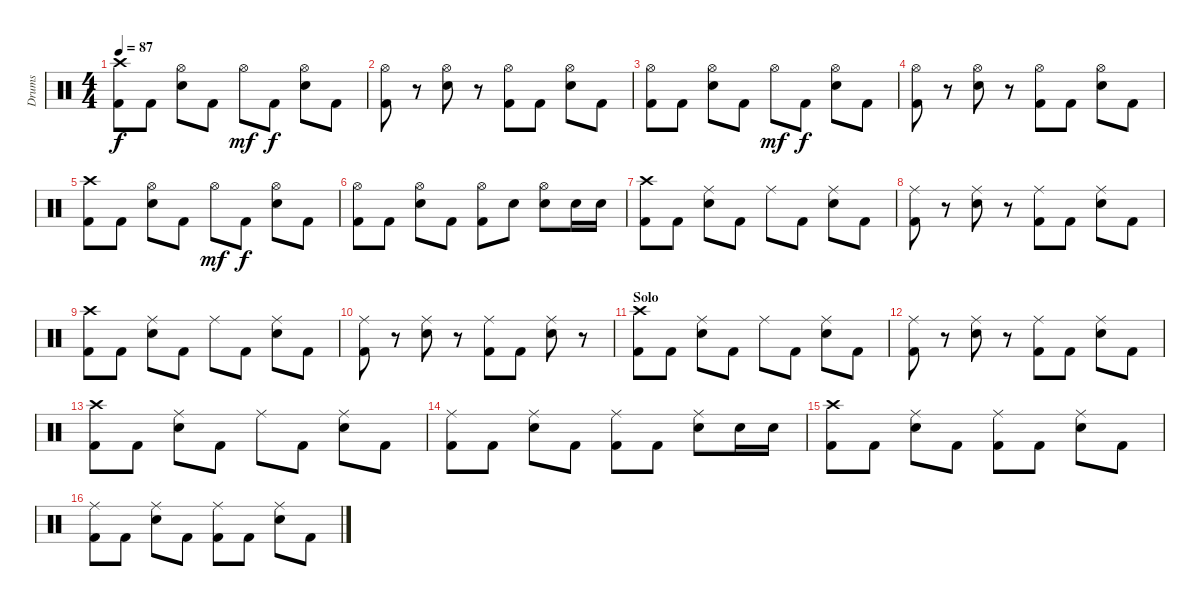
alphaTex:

\track ("Drums" "Drums") {instrument percussion}
\staff {score}
\articulation defaults
\ts (4 4)
\tempo 87
\clef neutral
\ks c
("Crash high (hit)" "Kick (hit) 2").8{dy f} "Kick (hit) 2".8 ("Hi-Hat (open)" "Snare (hit) 2").8 "Kick (hit) 2".8 "Hi-Hat (open)".8{dy mf} "Kick (hit) 2".8{dy f} ("Hi-Hat (open)" "Snare (hit) 2").8 "Kick (hit) 2".8 |
("Hi-Hat (open)" "Kick (hit) 2").8 r.8 ("Hi-Hat (open)" "Snare (hit) 2").8 r.8 ("Hi-Hat (open)" "Kick (hit) 2").8 "Kick (hit) 2".8 ("Hi-Hat (open)" "Snare (hit) 2").8 "Kick (hit) 2".8 |
("Hi-Hat (open)" "Kick (hit) 2").8 "Kick (hit) 2".8 ("Hi-Hat (open)" "Snare (hit) 2").8 "Kick (hit) 2".8 "Hi-Hat (open)".8{dy mf} "Kick (hit) 2".8{dy f} ("Hi-Hat (open)" "Snare (hit) 2").8 "Kick (hit) 2".8 |
("Hi-Hat (open)" "Kick (hit) 2").8 r.8 ("Hi-Hat (open)" "Snare (hit) 2").8 r.8 ("Hi-Hat (open)" "Kick (hit) 2").8 "Kick (hit) 2".8 ("Hi-Hat (open)" "Snare (hit) 2").8 "Kick (hit) 2".8 |
("Crash high (hit)" "Kick (hit) 2").8 "Kick (hit) 2".8 ("Hi-Hat (open)" "Snare (hit) 2").8 "Kick (hit) 2".8 "Hi-Hat (open)".8{dy mf} "Kick (hit) 2".8{dy f} ("Hi-Hat (open)" "Snare (hit) 2").8 "Kick (hit) 2".8 |
("Hi-Hat (open)" "Kick (hit) 2").8 "Kick (hit) 2".8 ("Hi-Hat (open)" "Snare (hit) 2").8 "Kick (hit) 2".8 ("Hi-Hat (open)" "Kick (hit) 2").8 "Snare (hit) 2".8 ("Hi-Hat (open)" "Snare (hit) 2").8 "Snare (hit) 2".16 "Snare (hit) 2".16 |
("Crash high (hit)" "Kick (hit) 2").8 "Kick (hit) 2".8 ("Ride (middle)" "Snare (hit) 2").8 "Kick (hit) 2".8 "Ride (middle)".8 "Kick (hit) 2".8 ("Ride (middle)" "Snare (hit) 2").8 "Kick (hit) 2".8 |
("Ride (middle)" "Kick (hit) 2").8 r.8 ("Ride (middle)" "Snare (hit) 2").8 r.8 ("Ride (middle)" "Kick (hit) 2").8 "Kick (hit) 2".8 ("Ride (middle)" "Snare (hit) 2").8 "Kick (hit) 2".8 |
("Crash high (hit)" "Kick (hit) 2").8 "Kick (hit) 2".8 ("Ride (middle)" "Snare (hit) 2").8 "Kick (hit) 2".8 "Ride (middle)".8 "Kick (hit) 2".8 ("Ride (middle)" "Snare (hit) 2").8 "Kick (hit) 2".8 |
("Ride (middle)" "Kick (hit) 2").8 r.8 ("Ride (middle)" "Snare (hit) 2").8 r.8 ("Ride (middle)" "Kick (hit) 2").8 "Kick (hit) 2".8 ("Ride (middle)" "Snare (hit) 2").8 r.8 |
\section ("" "Solo")
("Crash high (hit)" "Kick (hit) 2").8 "Kick (hit) 2".8 ("Ride (middle)" "Snare (hit) 2").8 "Kick (hit) 2".8 "Ride (middle)".8 "Kick (hit) 2".8 ("Ride (middle)" "Snare (hit) 2").8 "Kick (hit) 2".8 |
("Ride (middle)" "Kick (hit) 2").8 r.8 ("Ride (middle)" "Snare (hit) 2").8 r.8 ("Ride (middle)" "Kick (hit) 2").8 "Kick (hit) 2".8 ("Ride (middle)" "Snare (hit) 2").8 "Kick (hit) 2".8 |
("Crash high (hit)" "Kick (hit) 2").8 "Kick (hit) 2".8 ("Ride (middle)" "Snare (hit) 2").8 "Kick (hit) 2".8 "Ride (middle)".8 "Kick (hit) 2".8 ("Ride (middle)" "Snare (hit) 2").8 "Kick (hit) 2".8 |
("Ride (middle)" "Kick (hit) 2").8 "Kick (hit) 2".8 ("Ride (middle)" "Snare (hit) 2").8 "Kick (hit) 2".8 ("Ride (middle)" "Kick (hit) 2").8 "Kick (hit) 2".8 ("Ride (middle)" "Snare (hit) 2").8 "Snare (hit) 2".16 "Snare (hit) 2".16 |
("Crash high (hit)" "Kick (hit) 2").8 "Kick (hit) 2".8 ("Ride (middle)" "Snare (hit) 2").8 "Kick (hit) 2".8 ("Ride (middle)" "Kick (hit) 2").8 "Kick (hit) 2".8 ("Ride (middle)" "Snare (hit) 2").8 "Kick (hit) 2".8 |
("Ride (middle)" "Kick (hit) 2").8 "Kick (hit) 2".8 ("Ride (middle)" "Snare (hit) 2").8 "Kick (hit) 2".8 ("Ride (middle)" "Kick (hit) 2").8 "Kick (hit) 2".8 ("Ride (middle)" "Snare (hit) 2").8 "Kick (hit) 2".8
